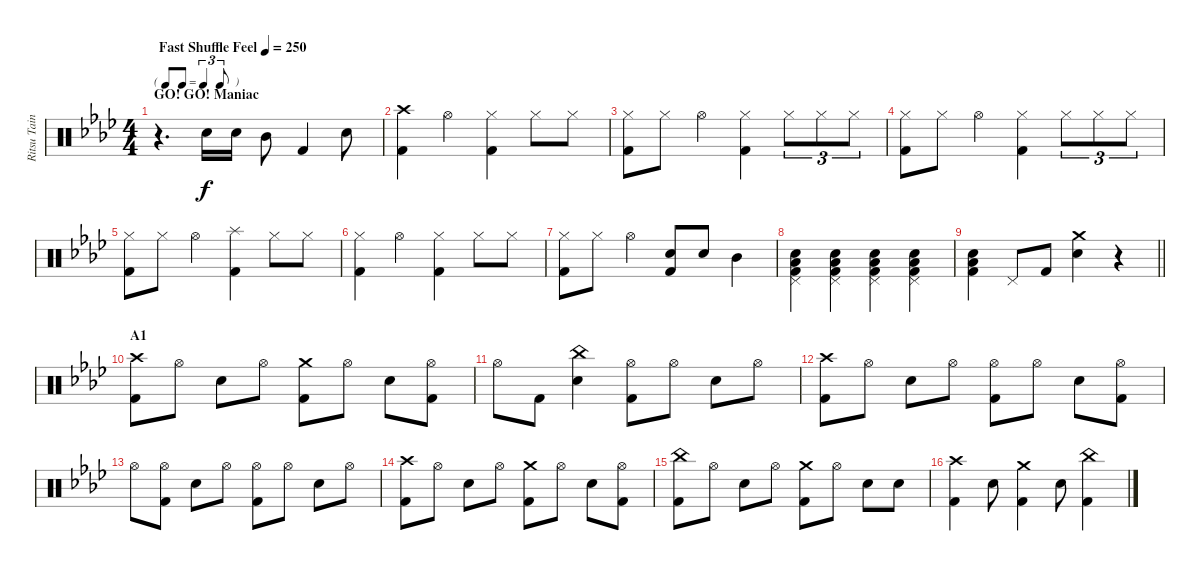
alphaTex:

\track ("Ritsu Tainaka" "Ritsu Tain") {instrument percussion}
\staff {score}
\articulation defaults
\ts (4 4)
\tf triplet8th
\section ("" "GO! GO! Maniac")
\tempo (250 "Fast Shuffle Feel")
\clef neutral
\ks ab
r.4{d dy f} "Electric Snare (hit)".16 "Electric Snare (hit)".16 "Mid Tom (hit)".8 "Kick (hit) 2".4 "Electric Snare (hit)".8 |
("Crash high (hit)" "Kick (hit) 2").4 "Hi-Hat (open)".4 ("Hi-Hat (closed)" "Kick (hit) 2").4 "Hi-Hat (closed)".8 "Hi-Hat (closed)".8 |
("Hi-Hat (closed)" "Kick (hit) 2").8 "Hi-Hat (closed)".8 "Hi-Hat (open)".4 ("Hi-Hat (closed)" "Kick (hit) 2").4 "Hi-Hat (closed)".8{tu (3 2)} "Hi-Hat (closed)".8{tu (3 2)} "Hi-Hat (closed)".8{tu (3 2)} |
("Hi-Hat (closed)" "Kick (hit) 2").8 "Hi-Hat (closed)".8 "Hi-Hat (open)".4 ("Hi-Hat (closed)" "Kick (hit) 2").4 "Hi-Hat (closed)".8{tu (3 2)} "Hi-Hat (closed)".8{tu (3 2)} "Hi-Hat (closed)".8{tu (3 2)} |
("Hi-Hat (closed)" "Kick (hit) 2").8 "Hi-Hat (closed)".8 "Hi-Hat (open)".4 ("Splash (hit)" "Kick (hit) 2").4 "Hi-Hat (closed)".8 "Hi-Hat (closed)".8 |
("Hi-Hat (closed)" "Kick (hit) 2").4 "Hi-Hat (open)".4 ("Hi-Hat (closed)" "Kick (hit) 2").4 "Hi-Hat (closed)".8 "Hi-Hat (closed)".8 |
("Hi-Hat (closed)" "Kick (hit) 2").8 "Hi-Hat (closed)".8 "Hi-Hat (open)".4 ("Electric Snare (hit)" "Kick (hit) 2").8 "Electric Snare (hit)".8 "Mid Tom (hit)".4 |
("Pedal Hi-Hat (hit)" "Electric Snare (hit)" "Low Floor Tom (hit)" "Kick (hit) 2").4 ("Pedal Hi-Hat (hit)" "Electric Snare (hit)" "Low Floor Tom (hit)" "Kick (hit) 2").4 ("Pedal Hi-Hat (hit)" "Electric Snare (hit)" "Low Floor Tom (hit)" "Kick (hit) 2").4 ("Pedal Hi-Hat (hit)" "Electric Snare (hit)" "Low Floor Tom (hit)" "Kick (hit) 2").4 |
\barLineRight lightlight
("Electric Snare (hit)" "Low Floor Tom (hit)" "Kick (hit) 2").4 "Pedal Hi-Hat (hit)".8 "Kick (hit) 2".8 ("Crash medium (hit)" "Electric Snare (hit)").4 r.4 |
\section ("" "A1")
("Crash high (hit)" "Kick (hit) 2").8 "Hi-Hat (open)".8 "Electric Snare (hit)".8 "Hi-Hat (open)".8 ("Crash medium (hit)" "Kick (hit) 2").8 "Hi-Hat (open)".8 "Electric Snare (hit)".8 ("Hi-Hat (open)" "Kick (hit) 2").8 |
"Hi-Hat (open)".8 "Kick (hit) 2".8 ("China (hit)" "Electric Snare (hit)").4 ("Hi-Hat (open)" "Kick (hit) 2").8 "Hi-Hat (open)".8 "Electric Snare (hit)".8 "Hi-Hat (open)".8 |
("Crash high (hit)" "Kick (hit) 2").8 "Hi-Hat (open)".8 "Electric Snare (hit)".8 "Hi-Hat (open)".8 ("Hi-Hat (open)" "Kick (hit) 2").8 "Hi-Hat (open)".8 "Electric Snare (hit)".8 ("Hi-Hat (open)" "Kick (hit) 2").8 |
"Hi-Hat (open)".8 ("Hi-Hat (open)" "Kick (hit) 2").8 "Electric Snare (hit)".8 "Hi-Hat (open)".8 ("Hi-Hat (open)" "Kick (hit) 2").8 "Hi-Hat (open)".8 "Electric Snare (hit)".8 "Hi-Hat (open)".8 |
("Crash high (hit)" "Kick (hit) 2").8 "Hi-Hat (open)".8 "Electric Snare (hit)".8 "Hi-Hat (open)".8 ("Crash medium (hit)" "Kick (hit) 2").8 "Hi-Hat (open)".8 "Electric Snare (hit)".8 ("Hi-Hat (open)" "Kick (hit) 2").8 |
("China (hit)" "Kick (hit) 2").8 "Hi-Hat (open)".8 "Electric Snare (hit)".8 "Hi-Hat (open)".8 ("Crash medium (hit)" "Kick (hit) 2").8 "Hi-Hat (open)".8 "Electric Snare (hit)".8 "Electric Snare (hit)".8 |
("Crash high (hit)" "Kick (hit) 2").4 "Electric Snare (hit)".8 ("Crash medium (hit)" "Kick (hit) 2").4 "Electric Snare (hit)".8 ("China (hit)" "Kick (hit) 2").4
